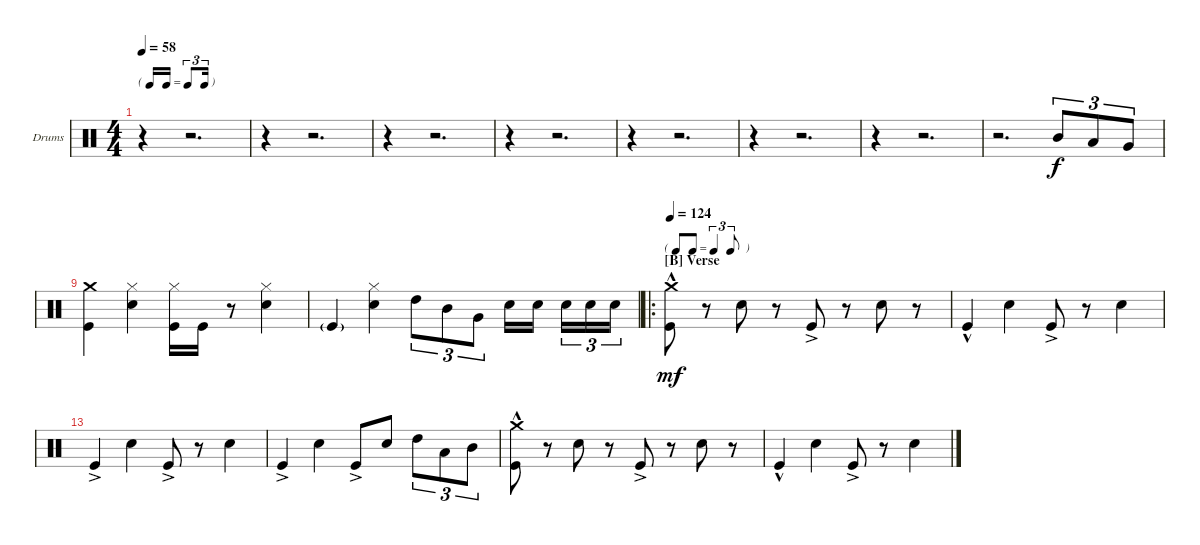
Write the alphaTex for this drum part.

\bracketExtendMode nobrackets
\firstSystemTrackNameOrientation horizontal
\otherSystemsTrackNameOrientation horizontal
\defaultBarNumberDisplay FirstOfSystem
\track ("Drumkit" "Drums") {instrument percussion}
\staff {score}
\articulation defaults
\ts (4 4)
\tf triplet16th
\tempo 58
\clef neutral
\ks c
r.4{dy f} r.2{d} |
r.4 r.2{d} |
r.4 r.2{d} |
r.4 r.2{d} |
r.4 r.2{d} |
r.4 r.2{d} |
\scale
0.552834 r.4 r.2{d} |
\scale
0.44717 r.2{d} "Mid Tom (hit)".8{tu (3 2)} "Low Tom (hit)".8{tu (3 2)} "Very Low Tom (hit)".8{tu (3 2)} |
("Kick (hit)" "Crash medium (hit)").4 ("Snare (hit) 2" "Hi-Hat (closed)").4 ("Kick (hit)" "Hi-Hat (closed)").16 "Kick (hit)".16 r.8 ("Snare (hit) 2" "Hi-Hat (closed)").4 |
"Kick (hit)"{g}.4 ("Snare (hit) 2" "Hi-Hat (closed)").4 "High Tom (hit)".8{tu (3 2)} "Mid Tom (hit)".8{tu (3 2)} "Very Low Tom (hit)".8{tu (3 2)} "Snare (hit) 2".16 "Snare (hit) 2".16 "Snare (hit) 2".16{tu (3 2)} "Snare (hit) 2".16{tu (3 2)} "Snare (hit) 2".16{tu (3 2)} |
\ro
\tf triplet8th
\section ("B" "Verse")
\tempo 124
("Kick (hit)"{hac} "Crash medium (hit)"{hac}).8{dy mf} r.8 "Snare (hit) 2".8 r.8 "Kick (hit)"{ac}.8 r.8 "Snare (hit) 2".8 r.8 |
"Kick (hit)"{hac}.4 "Snare (hit) 2".4 "Kick (hit)"{ac}.8 r.8 "Snare (hit) 2".4 |
"Kick (hit)"{ac}.4 "Snare (hit) 2".4 "Kick (hit)"{ac}.8 r.8 "Snare (hit) 2".4 |
"Kick (hit)"{ac}.4 "Snare (hit) 2".4 "Kick (hit)"{ac}.8 "Snare (hit) 2".8 "High Tom (hit)".8{tu (3 2)} "Low Tom (hit)".8{tu (3 2)} "Mid Tom (hit)".8{tu (3 2)} |
("Kick (hit)"{hac} "Crash medium (hit)"{hac}).8 r.8 "Snare (hit) 2".8 r.8 "Kick (hit)"{ac}.8 r.8 "Snare (hit) 2".8 r.8 |
"Kick (hit)"{hac}.4 "Snare (hit) 2".4 "Kick (hit)"{ac}.8 r.8 "Snare (hit) 2".4
